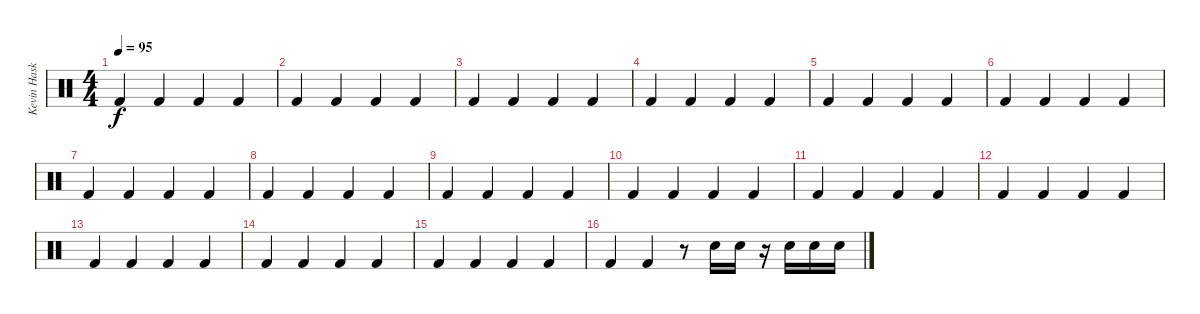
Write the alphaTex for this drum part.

\track ("Kevin Haskins" "Kevin Hask") {instrument percussion}
\staff {score}
\articulation defaults
\ts (4 4)
\tempo 95
\clef neutral
\ks c "Kick (hit) 2".4{dy f} "Kick (hit) 2".4 "Kick (hit) 2".4 "Kick (hit) 2".4
|
"Kick (hit) 2".4 "Kick (hit) 2".4 "Kick (hit) 2".4 "Kick (hit) 2".4 |
"Kick (hit) 2".4 "Kick (hit) 2".4 "Kick (hit) 2".4 "Kick (hit) 2".4 |
"Kick (hit) 2".4 "Kick (hit) 2".4 "Kick (hit) 2".4 "Kick (hit) 2".4 |
"Kick (hit) 2".4 "Kick (hit) 2".4 "Kick (hit) 2".4 "Kick (hit) 2".4 |
"Kick (hit) 2".4 "Kick (hit) 2".4 "Kick (hit) 2".4 "Kick (hit) 2".4 |
"Kick (hit) 2".4 "Kick (hit) 2".4 "Kick (hit) 2".4 "Kick (hit) 2".4 |
"Kick (hit) 2".4 "Kick (hit) 2".4 "Kick (hit) 2".4 "Kick (hit) 2".4 |
"Kick (hit) 2".4 "Kick (hit) 2".4 "Kick (hit) 2".4 "Kick (hit) 2".4 |
"Kick (hit) 2".4 "Kick (hit) 2".4 "Kick (hit) 2".4 "Kick (hit) 2".4 |
"Kick (hit) 2".4 "Kick (hit) 2".4 "Kick (hit) 2".4 "Kick (hit) 2".4 |
"Kick (hit) 2".4 "Kick (hit) 2".4 "Kick (hit) 2".4 "Kick (hit) 2".4 |
"Kick (hit) 2".4 "Kick (hit) 2".4 "Kick (hit) 2".4 "Kick (hit) 2".4 |
"Kick (hit) 2".4 "Kick (hit) 2".4 "Kick (hit) 2".4 "Kick (hit) 2".4 |
"Kick (hit) 2".4 "Kick (hit) 2".4 "Kick (hit) 2".4 "Kick (hit) 2".4 |
"Kick (hit) 2".4 "Kick (hit) 2".4 r.8 "Electric Snare (hit)".16 "Electric Snare (hit)".16 r.16 "Electric Snare (hit)".16 "Electric Snare (hit)".16 "Electric Snare (hit)".16
